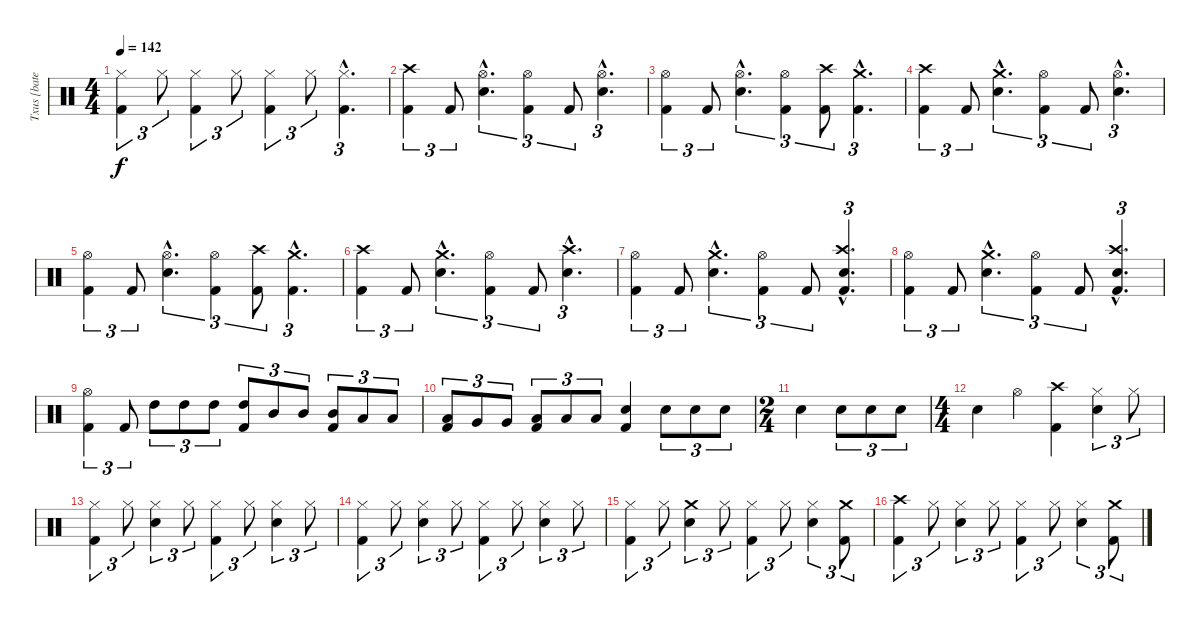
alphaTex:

\track ("Txus [bateria]" "Txus [bate") {instrument percussion}
\staff {score}
\articulation defaults
\ts (4 4)
\tempo 142
\clef neutral
\ks c
("Hi-Hat (closed)" "Kick (hit) 2").4{tu (3 2) dy f} "Hi-Hat (closed)".8{tu (3 2)} ("Hi-Hat (closed)" "Kick (hit) 2").4{tu (3 2)} "Hi-Hat (closed)".8{tu (3 2)} ("Hi-Hat (closed)" "Kick (hit) 2").4{tu (3 2)} "Hi-Hat (closed)".8{tu (3 2)} ("Hi-Hat (closed)"{hac} "Kick (hit) 2"{hac}).4{d tu (3 2)} |
("Crash high (hit)" "Kick (hit) 2").4{tu (3 2)} "Kick (hit) 2".8{tu (3 2)} ("Hi-Hat (open)"{hac} "Snare (hit) 2"{hac}).4{d tu (3 2)} ("Hi-Hat (open)" "Kick (hit) 2").4{tu (3 2)} "Kick (hit) 2".8{tu (3 2)} ("Hi-Hat (open)"{hac} "Snare (hit) 2"{hac}).4{d tu (3 2)} |
("Hi-Hat (open)" "Kick (hit) 2").4{tu (3 2)} "Kick (hit) 2".8{tu (3 2)} ("Hi-Hat (open)"{hac} "Snare (hit) 2"{hac}).4{d tu (3 2)} ("Hi-Hat (open)" "Kick (hit) 2").4{tu (3 2)} ("Crash high (hit)" "Kick (hit) 2").8{tu (3 2)} ("Crash medium (hit)"{hac} "Kick (hit) 2"{hac}).4{d tu (3 2)} |
("Crash high (hit)" "Kick (hit) 2").4{tu (3 2)} "Kick (hit) 2".8{tu (3 2)} ("Crash medium (hit)"{hac} "Snare (hit) 2"{hac}).4{d tu (3 2)} ("Hi-Hat (open)" "Kick (hit) 2").4{tu (3 2)} "Kick (hit) 2".8{tu (3 2)} ("Hi-Hat (open)"{hac} "Snare (hit) 2"{hac}).4{d tu (3 2)} |
("Hi-Hat (open)" "Kick (hit) 2").4{tu (3 2)} "Kick (hit) 2".8{tu (3 2)} ("Hi-Hat (open)"{hac} "Snare (hit) 2"{hac}).4{d tu (3 2)} ("Hi-Hat (open)" "Kick (hit) 2").4{tu (3 2)} ("Crash high (hit)" "Kick (hit) 2").8{tu (3 2)} ("Crash medium (hit)"{hac} "Kick (hit) 2"{hac}).4{d tu (3 2)} |
("Crash high (hit)" "Kick (hit) 2").4{tu (3 2)} "Kick (hit) 2".8{tu (3 2)} ("Crash medium (hit)"{hac} "Snare (hit) 2"{hac}).4{d tu (3 2)} ("Hi-Hat (open)" "Kick (hit) 2").4{tu (3 2)} "Kick (hit) 2".8{tu (3 2)} ("Crash high (hit)"{hac} "Snare (hit) 2"{hac}).4{d tu (3 2)} |
("Hi-Hat (open)" "Kick (hit) 2").4{tu (3 2)} "Kick (hit) 2".8{tu (3 2)} ("Crash medium (hit)"{hac} "Snare (hit) 2"{hac}).4{d tu (3 2)} ("Hi-Hat (open)" "Kick (hit) 2").4{tu (3 2)} "Kick (hit) 2".8{tu (3 2)} ("Crash high (hit)"{hac} "Snare (hit) 2"{hac} "Kick (hit) 2"{hac}).4{d tu (3 2)} |
("Hi-Hat (open)" "Kick (hit) 2").4{tu (3 2)} "Kick (hit) 2".8{tu (3 2)} ("Crash medium (hit)"{hac} "Snare (hit) 2"{hac}).4{d tu (3 2)} ("Hi-Hat (open)" "Kick (hit) 2").4{tu (3 2)} "Kick (hit) 2".8{tu (3 2)} ("Crash high (hit)"{hac} "Snare (hit) 2"{hac} "Kick (hit) 2"{hac}).4{d tu (3 2)} |
("Hi-Hat (open)" "Kick (hit) 2").4{tu (3 2)} "Kick (hit) 2".8{tu (3 2)} "High Tom (hit)".8{tu (3 2)} "High Tom (hit)".8{tu (3 2)} "High Tom (hit)".8{tu (3 2)} ("High Tom (hit)" "Kick (hit) 2").8{tu (3 2)} "Mid Tom (hit)".8{tu (3 2)} "Mid Tom (hit)".8{tu (3 2)} ("Mid Tom (hit)" "Kick (hit) 2").8{tu (3 2)} "Low Tom (hit)".8{tu (3 2)} "Low Tom (hit)".8{tu (3 2)} |
("Low Tom (hit)" "Kick (hit) 2").8{tu (3 2)} "Very Low Tom (hit)".8{tu (3 2)} "Very Low Tom (hit)".8{tu (3 2)} ("Low Floor Tom (hit)" "Kick (hit) 2").8{tu (3 2)} "Low Floor Tom (hit)".8{tu (3 2)} "Low Floor Tom (hit)".8{tu (3 2)} ("Snare (hit) 2" "Kick (hit) 2").4 "Snare (hit) 2".8{tu (3 2)} "Snare (hit) 2".8{tu (3 2)} "Snare (hit) 2".8{tu (3 2)} |
\ts (2 4)
"Snare (hit) 2".4 "Snare (hit) 2".8{tu (3 2)} "Snare (hit) 2".8{tu (3 2)} "Snare (hit) 2".8{tu (3 2)} |
\ts (4 4)
"Snare (hit) 2".4 "Hi-Hat (open)".4 ("Crash high (hit)" "Kick (hit) 2").4 ("Hi-Hat (closed)" "Snare (hit) 2").4{tu (3 2)} "Hi-Hat (closed)".8{tu (3 2)} |
("Hi-Hat (closed)" "Kick (hit) 2").4{tu (3 2)} "Hi-Hat (closed)".8{tu (3 2)} ("Hi-Hat (closed)" "Snare (hit) 2").4{tu (3 2)} "Hi-Hat (closed)".8{tu (3 2)} ("Hi-Hat (closed)" "Kick (hit) 2").4{tu (3 2)} "Hi-Hat (closed)".8{tu (3 2)} ("Hi-Hat (closed)" "Snare (hit) 2").4{tu (3 2)} "Hi-Hat (closed)".8{tu (3 2)} |
("Hi-Hat (closed)" "Kick (hit) 2").4{tu (3 2)} "Hi-Hat (closed)".8{tu (3 2)} ("Hi-Hat (closed)" "Snare (hit) 2").4{tu (3 2)} "Hi-Hat (closed)".8{tu (3 2)} ("Hi-Hat (closed)" "Kick (hit) 2").4{tu (3 2)} "Hi-Hat (closed)".8{tu (3 2)} ("Hi-Hat (closed)" "Snare (hit) 2").4{tu (3 2)} "Hi-Hat (closed)".8{tu (3 2)} |
("Hi-Hat (closed)" "Kick (hit) 2").4{tu (3 2)} "Hi-Hat (closed)".8{tu (3 2)} ("Crash medium (hit)" "Snare (hit) 2").4{tu (3 2)} "Hi-Hat (closed)".8{tu (3 2)} ("Hi-Hat (closed)" "Kick (hit) 2").4{tu (3 2)} "Hi-Hat (closed)".8{tu (3 2)} ("Hi-Hat (closed)" "Snare (hit) 2").4{tu (3 2)} ("Crash medium (hit)" "Kick (hit) 2").8{tu (3 2)} |
("Crash high (hit)" "Kick (hit) 2").4{tu (3 2)} "Hi-Hat (closed)".8{tu (3 2)} ("Hi-Hat (closed)" "Snare (hit) 2").4{tu (3 2)} "Hi-Hat (closed)".8{tu (3 2)} ("Hi-Hat (closed)" "Kick (hit) 2").4{tu (3 2)} "Hi-Hat (closed)".8{tu (3 2)} ("Hi-Hat (closed)" "Snare (hit) 2").4{tu (3 2)} ("Crash medium (hit)" "Kick (hit) 2").8{tu (3 2)}
